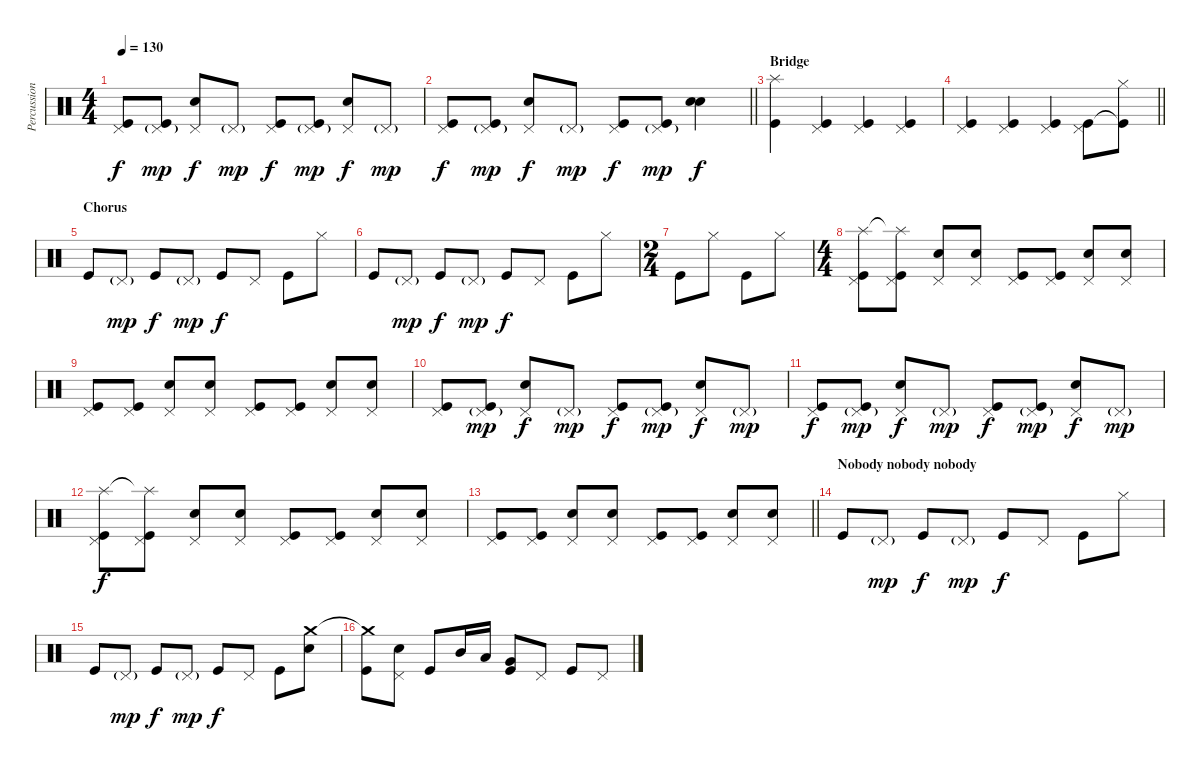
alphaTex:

\track ("Percussion" "Percussion") {instrument percussion}
\staff {score}
\articulation defaults
\ts (4 4)
\tempo 130
\clef neutral
\ks c
("Pedal Hi-Hat (hit)" "Kick (hit)").8{dy f} ("Pedal Hi-Hat (hit)"{g} "Kick (hit)").8{dy mp} ("Pedal Hi-Hat (hit)" "Snare (hit) 2").8{dy f} "Pedal Hi-Hat (hit)"{g}.8{dy mp} ("Pedal Hi-Hat (hit)" "Kick (hit)").8{dy f} ("Pedal Hi-Hat (hit)"{g} "Kick (hit)").8{dy mp} ("Pedal Hi-Hat (hit)" "Snare (hit) 2").8{dy f} "Pedal Hi-Hat (hit)"{g}.8{dy mp} |
\barLineRight lightlight
("Pedal Hi-Hat (hit)" "Kick (hit)").8{dy f} ("Pedal Hi-Hat (hit)"{g} "Kick (hit)").8{dy mp} ("Pedal Hi-Hat (hit)" "Snare (hit) 2").8{dy f} "Pedal Hi-Hat (hit)"{g}.8{dy mp} ("Pedal Hi-Hat (hit)" "Kick (hit)").8{dy f} ("Pedal Hi-Hat (hit)"{g} "Kick (hit)").8{dy mp} ("Snare (hit) 2" "Snare (hit) 2").4{dy f} |
\section ("" "Bridge")
("Splash (hit)" "Kick (hit)").4 ("Pedal Hi-Hat (hit)" "Kick (hit)").4 ("Pedal Hi-Hat (hit)" "Kick (hit)").4 ("Pedal Hi-Hat (hit)" "Kick (hit)").4 |
\barLineRight lightlight
("Pedal Hi-Hat (hit)" "Kick (hit)").4 ("Pedal Hi-Hat (hit)" "Kick (hit)").4 ("Pedal Hi-Hat (hit)" "Kick (hit)").4 ("Pedal Hi-Hat (hit)" "Kick (hit)").8 ("Hi-Hat (closed)" "Kick (hit)"{t}).8 |
\section ("" "Chorus")
"Kick (hit)".8 "Pedal Hi-Hat (hit)"{g}.8{dy mp} "Kick (hit)".8{dy f} "Pedal Hi-Hat (hit)"{g}.8{dy mp} "Kick (hit)".8{dy f} "Pedal Hi-Hat (hit)".8 "Kick (hit)".8 "Hi-Hat (closed)".8 |
"Kick (hit)".8 "Pedal Hi-Hat (hit)"{g}.8{dy mp} "Kick (hit)".8{dy f} "Pedal Hi-Hat (hit)"{g}.8{dy mp} "Kick (hit)".8{dy f} "Pedal Hi-Hat (hit)".8 "Kick (hit)".8 "Hi-Hat (closed)".8 |
\ts (2 4)
"Kick (hit)".8 "Hi-Hat (closed)".8 "Kick (hit)".8 "Hi-Hat (closed)".8 |
\ts (4 4)
("Splash (hit)" "Pedal Hi-Hat (hit)" "Kick (hit)").8 ("Splash (hit)"{t} "Pedal Hi-Hat (hit)" "Kick (hit)").8 ("Pedal Hi-Hat (hit)" "Snare (hit) 2").8 ("Pedal Hi-Hat (hit)" "Snare (hit) 2").8 ("Pedal Hi-Hat (hit)" "Kick (hit)").8 ("Pedal Hi-Hat (hit)" "Kick (hit)").8 ("Pedal Hi-Hat (hit)" "Snare (hit) 2").8 ("Pedal Hi-Hat (hit)" "Snare (hit) 2").8 |
("Pedal Hi-Hat (hit)" "Kick (hit)").8 ("Pedal Hi-Hat (hit)" "Kick (hit)").8 ("Pedal Hi-Hat (hit)" "Snare (hit) 2").8 ("Pedal Hi-Hat (hit)" "Snare (hit) 2").8 ("Pedal Hi-Hat (hit)" "Kick (hit)").8 ("Pedal Hi-Hat (hit)" "Kick (hit)").8 ("Pedal Hi-Hat (hit)" "Snare (hit) 2").8 ("Pedal Hi-Hat (hit)" "Snare (hit) 2").8 |
("Pedal Hi-Hat (hit)" "Kick (hit)").8 ("Pedal Hi-Hat (hit)"{g} "Kick (hit)").8{dy mp} ("Pedal Hi-Hat (hit)" "Snare (hit) 2").8{dy f} "Pedal Hi-Hat (hit)"{g}.8{dy mp} ("Pedal Hi-Hat (hit)" "Kick (hit)").8{dy f} ("Pedal Hi-Hat (hit)"{g} "Kick (hit)").8{dy mp} ("Pedal Hi-Hat (hit)" "Snare (hit) 2").8{dy f} "Pedal Hi-Hat (hit)"{g}.8{dy mp} |
("Pedal Hi-Hat (hit)" "Kick (hit)").8{dy f} ("Pedal Hi-Hat (hit)"{g} "Kick (hit)").8{dy mp} ("Pedal Hi-Hat (hit)" "Snare (hit) 2").8{dy f} "Pedal Hi-Hat (hit)"{g}.8{dy mp} ("Pedal Hi-Hat (hit)" "Kick (hit)").8{dy f} ("Pedal Hi-Hat (hit)"{g} "Kick (hit)").8{dy mp} ("Pedal Hi-Hat (hit)" "Snare (hit) 2").8{dy f} "Pedal Hi-Hat (hit)"{g}.8{dy mp} |
("Splash (hit)" "Pedal Hi-Hat (hit)" "Kick (hit)").8{dy f} ("Splash (hit)"{t} "Pedal Hi-Hat (hit)" "Kick (hit)").8 ("Pedal Hi-Hat (hit)" "Snare (hit) 2").8 ("Pedal Hi-Hat (hit)" "Snare (hit) 2").8 ("Pedal Hi-Hat (hit)" "Kick (hit)").8 ("Pedal Hi-Hat (hit)" "Kick (hit)").8 ("Pedal Hi-Hat (hit)" "Snare (hit) 2").8 ("Pedal Hi-Hat (hit)" "Snare (hit) 2").8 |
\barLineRight lightlight
("Pedal Hi-Hat (hit)" "Kick (hit)").8 ("Pedal Hi-Hat (hit)" "Kick (hit)").8 ("Pedal Hi-Hat (hit)" "Snare (hit) 2").8 ("Pedal Hi-Hat (hit)" "Snare (hit) 2").8 ("Pedal Hi-Hat (hit)" "Kick (hit)").8 ("Pedal Hi-Hat (hit)" "Kick (hit)").8 ("Pedal Hi-Hat (hit)" "Snare (hit) 2").8 ("Pedal Hi-Hat (hit)" "Snare (hit) 2").8 |
\section ("" "Nobody nobody nobody")
"Kick (hit)".8 "Pedal Hi-Hat (hit)"{g}.8{dy mp} "Kick (hit)".8{dy f} "Pedal Hi-Hat (hit)"{g}.8{dy mp} "Kick (hit)".8{dy f} "Pedal Hi-Hat (hit)".8 "Kick (hit)".8 "Hi-Hat (closed)".8 |
"Kick (hit)".8 "Pedal Hi-Hat (hit)"{g}.8{dy mp} "Kick (hit)".8{dy f} "Pedal Hi-Hat (hit)"{g}.8{dy mp} "Kick (hit)".8{dy f} "Pedal Hi-Hat (hit)".8 "Kick (hit)".8 ("Crash medium (hit)" "Snare (hit) 2").8 |
("Crash medium (hit)"{t} "Kick (hit)").8 ("Pedal Hi-Hat (hit)" "Snare (hit) 2").8 "Kick (hit)".8 "Mid Tom (hit)".16 "Low Tom (hit)".16 ("Very Low Tom (hit)" "Kick (hit)").8 "Pedal Hi-Hat (hit)".8 "Kick (hit)".8 "Pedal Hi-Hat (hit)".8
